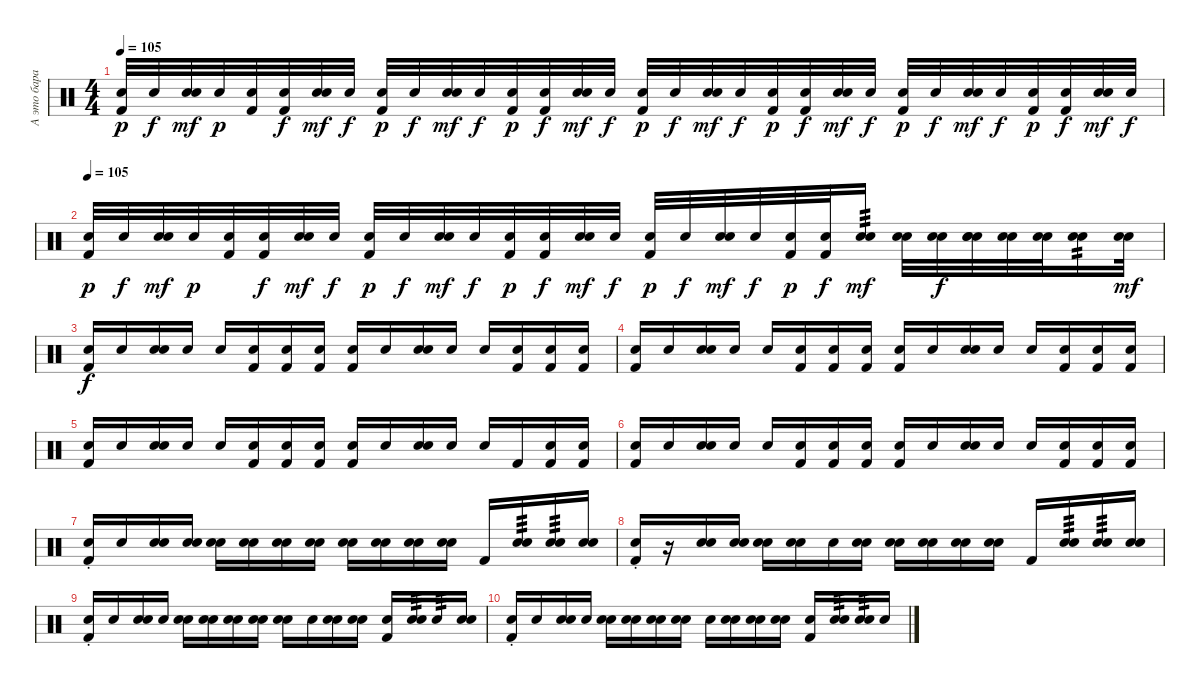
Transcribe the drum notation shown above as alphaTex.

\track ("А это барабаны" "А это бара") {instrument percussion}
\staff {score}
\articulation defaults
\ts (4 4)
\tempo 105
\clef neutral
\ks c
("Snare (hit)" "Kick (hit) 2").32{dy p} "Snare (hit)".32{dy f} ("Snare (hit)" "Snare (hit) 2").32{dy mf} "Snare (hit)".32{dy p} ("Snare (hit)" "Kick (hit) 2").32 ("Snare (hit)" "Kick (hit) 2").32{dy f} ("Snare (hit)" "Snare (hit) 2").32{dy mf} "Snare (hit)".32{dy f} ("Snare (hit)" "Kick (hit) 2").32{dy p} "Snare (hit)".32{dy f} ("Snare (hit)" "Snare (hit) 2").32{dy mf} "Snare (hit)".32{dy f} ("Snare (hit)" "Kick (hit) 2").32{dy p} ("Snare (hit)" "Kick (hit) 2").32{dy f} ("Snare (hit)" "Snare (hit) 2").32{dy mf} "Snare (hit)".32{dy f} ("Snare (hit)" "Kick (hit) 2").32{dy p} "Snare (hit)".32{dy f} ("Snare (hit)" "Snare (hit) 2").32{dy mf} "Snare (hit)".32{dy f} ("Snare (hit)" "Kick (hit) 2").32{dy p} ("Snare (hit)" "Kick (hit) 2").32{dy f} ("Snare (hit)" "Snare (hit) 2").32{dy mf} "Snare (hit)".32{dy f} ("Snare (hit)" "Kick (hit) 2").32{dy p} "Snare (hit)".32{dy f} ("Snare (hit)" "Snare (hit) 2").32{dy mf} "Snare (hit)".32{dy f} ("Snare (hit)" "Kick (hit) 2").32{dy p} ("Snare (hit)" "Kick (hit) 2").32{dy f} ("Snare (hit)" "Snare (hit) 2").32{dy mf} "Snare (hit)".32{dy f} |
\tempo 105
("Snare (hit)" "Kick (hit) 2").32{dy p} "Snare (hit)".32{dy f} ("Snare (hit)" "Snare (hit) 2").32{dy mf} "Snare (hit)".32{dy p} ("Snare (hit)" "Kick (hit) 2").32 ("Snare (hit)" "Kick (hit) 2").32{dy f} ("Snare (hit)" "Snare (hit) 2").32{dy mf} "Snare (hit)".32{dy f} ("Snare (hit)" "Kick (hit) 2").32{dy p} "Snare (hit)".32{dy f} ("Snare (hit)" "Snare (hit) 2").32{dy mf} "Snare (hit)".32{dy f} ("Snare (hit)" "Kick (hit) 2").32{dy p} ("Snare (hit)" "Kick (hit) 2").32{dy f} ("Snare (hit)" "Snare (hit) 2").32{dy mf} "Snare (hit)".32{dy f} ("Snare (hit)" "Kick (hit) 2").32{dy p} "Snare (hit)".32{dy f} ("Snare (hit)" "Snare (hit) 2").32{dy mf} "Snare (hit)".32{dy f} ("Snare (hit)" "Kick (hit) 2").32{dy p} ("Snare (hit)" "Kick (hit) 2").32{dy f} ("Snare (hit)" "Snare (hit) 2").16{tp 3 dy mf} ("Snare (hit)" "Snare (hit)").32 ("Snare (hit)" "Snare (hit) 2").32{dy f} ("Snare (hit)" "Snare (hit) 2" "Snare (hit)").32 ("Snare (hit)" "Snare (hit) 2").32 ("Snare (hit)" "Snare (hit)").32 ("Snare (hit)" "Snare (hit) 2").16{tp 2} ("Snare (hit)" "Snare (hit)").32{dy mf} |
("Snare (hit)" "Kick (hit) 2").16{dy f} "Snare (hit)".16 ("Snare (hit)" "Snare (hit) 2").16 "Snare (hit)".16 "Snare (hit)".16 ("Snare (hit)" "Kick (hit) 2").16 ("Snare (hit)" "Kick (hit) 2").16 ("Snare (hit)" "Kick (hit) 2").16 ("Snare (hit)" "Kick (hit) 2").16 "Snare (hit)".16 ("Snare (hit)" "Snare (hit) 2").16 "Snare (hit)".16 "Snare (hit)".16 ("Snare (hit)" "Kick (hit) 2").16 ("Snare (hit)" "Kick (hit) 2").16 ("Snare (hit)" "Kick (hit) 2").16 |
("Snare (hit)" "Kick (hit) 2").16 "Snare (hit)".16 ("Snare (hit)" "Snare (hit) 2").16 "Snare (hit)".16 "Snare (hit)".16 ("Snare (hit)" "Kick (hit) 2").16 ("Snare (hit)" "Kick (hit) 2").16 ("Snare (hit)" "Kick (hit) 2").16 ("Snare (hit)" "Kick (hit) 2").16 "Snare (hit)".16 ("Snare (hit)" "Snare (hit) 2").16 "Snare (hit)".16 "Snare (hit)".16 ("Snare (hit)" "Kick (hit) 2").16 ("Snare (hit)" "Kick (hit) 2").16 ("Snare (hit)" "Kick (hit) 2").16 |
("Snare (hit)" "Kick (hit) 2").16 "Snare (hit)".16 ("Snare (hit)" "Snare (hit) 2").16 "Snare (hit)".16 "Snare (hit)".16 ("Snare (hit)" "Kick (hit) 2").16 ("Snare (hit)" "Kick (hit) 2").16 ("Snare (hit)" "Kick (hit) 2").16 ("Snare (hit)" "Kick (hit) 2").16 "Snare (hit)".16 ("Snare (hit)" "Snare (hit) 2").16 "Snare (hit)".16 "Snare (hit)".16 "Kick (hit) 2".16 ("Snare (hit)" "Kick (hit) 2").16 ("Snare (hit)" "Kick (hit) 2").16 |
("Snare (hit)" "Kick (hit) 2").16 "Snare (hit)".16 ("Snare (hit)" "Snare (hit) 2").16 "Snare (hit)".16 "Snare (hit)".16 ("Snare (hit)" "Kick (hit) 2").16 ("Snare (hit)" "Kick (hit) 2").16 ("Snare (hit)" "Kick (hit) 2").16 ("Snare (hit)" "Kick (hit) 2").16 "Snare (hit)".16 ("Snare (hit)" "Snare (hit) 2").16 "Snare (hit)".16 "Snare (hit)".16 ("Snare (hit)" "Kick (hit) 2").16 ("Snare (hit)" "Kick (hit) 2").16 ("Snare (hit)" "Kick (hit) 2").16 |
("Snare (hit)"{st} "Kick (hit) 2").16 "Snare (hit)".16 ("Snare (hit)" "Snare (hit) 2").16 ("Snare (hit)" "Snare (hit) 2").16 ("Snare (hit)" "Snare (hit) 2").16 ("Snare (hit)" "Snare (hit) 2").16 ("Snare (hit)" "Snare (hit) 2").16 ("Snare (hit)" "Snare (hit) 2").16 ("Snare (hit)" "Snare (hit) 2").16 ("Snare (hit)" "Snare (hit) 2").16 ("Snare (hit)" "Snare (hit) 2").16 ("Snare (hit)" "Snare (hit) 2").16 "Kick (hit) 2".16 ("Snare (hit)" "Snare (hit) 2").16{tp 3} ("Snare (hit)" "Snare (hit) 2").16{tp 3} ("Snare (hit)" "Snare (hit) 2").16 |
("Snare (hit)"{st} "Kick (hit) 2").16 r.16 ("Snare (hit)" "Snare (hit) 2").16 ("Snare (hit)" "Snare (hit) 2").16 ("Snare (hit)" "Snare (hit) 2").16 ("Snare (hit)" "Snare (hit) 2").16 "Snare (hit) 2".16 ("Snare (hit)" "Snare (hit) 2").16 ("Snare (hit)" "Snare (hit) 2").16 ("Snare (hit)" "Snare (hit) 2").16 ("Snare (hit)" "Snare (hit) 2").16 ("Snare (hit)" "Snare (hit) 2").16 "Kick (hit) 2".16 ("Snare (hit)" "Snare (hit) 2").16{tp 3} ("Snare (hit)" "Snare (hit) 2").16{tp 3} ("Snare (hit)" "Snare (hit) 2").16 |
("Snare (hit)"{st} "Kick (hit) 2").16 "Snare (hit)".16 ("Snare (hit)" "Snare (hit) 2").16 "Snare (hit) 2".16 ("Snare (hit)" "Snare (hit) 2").16 ("Snare (hit)" "Snare (hit) 2").16 ("Snare (hit)" "Snare (hit) 2").16 ("Snare (hit)" "Snare (hit) 2").16 ("Snare (hit)" "Snare (hit) 2").16 "Snare (hit) 2".16 ("Snare (hit)" "Snare (hit) 2").16 ("Snare (hit)" "Snare (hit) 2").16 ("Snare (hit)" "Kick (hit) 2").16 ("Snare (hit)" "Snare (hit) 2").16{tp 3} "Snare (hit) 2".16{tp 3} ("Snare (hit)" "Snare (hit) 2").16 |
("Snare (hit)"{st} "Kick (hit) 2").16 "Snare (hit)".16 ("Snare (hit)" "Snare (hit) 2").16 "Snare (hit) 2".16 ("Snare (hit)" "Snare (hit) 2").16 ("Snare (hit)" "Snare (hit) 2").16 ("Snare (hit)" "Snare (hit) 2").16 ("Snare (hit)" "Snare (hit) 2").16 "Snare (hit) 2".16 ("Snare (hit)" "Snare (hit) 2").16 ("Snare (hit)" "Snare (hit) 2").16 ("Snare (hit)" "Snare (hit) 2").16 ("Snare (hit)" "Kick (hit) 2").16 ("Snare (hit)" "Snare (hit) 2").16{tp 3} ("Snare (hit)" "Snare (hit) 2").16{tp 3} "Snare (hit) 2".16
